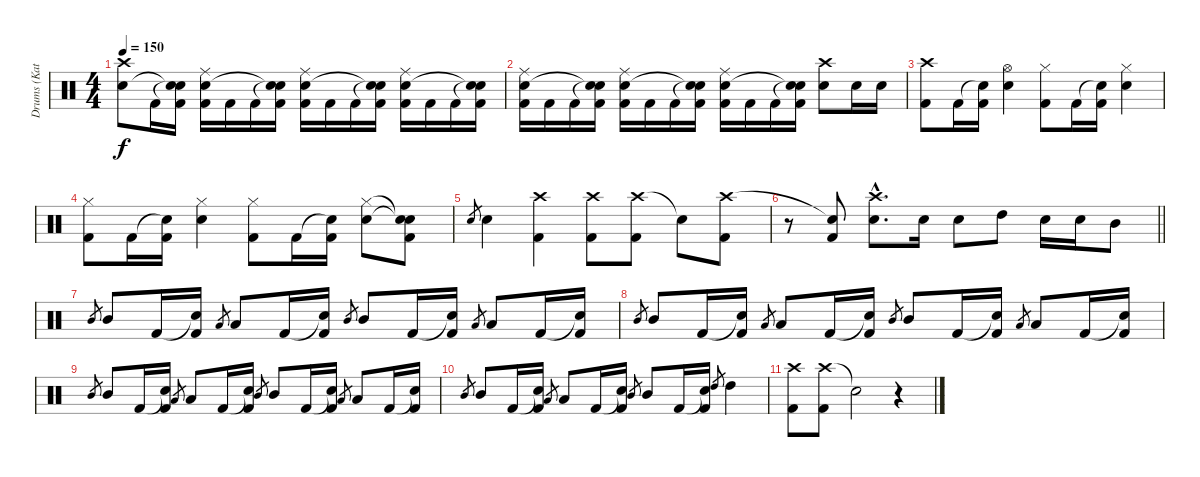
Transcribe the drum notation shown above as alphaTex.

\track ("Drums (Katsuji)" "Drums (Kat") {instrument percussion}
\staff {score}
\articulation defaults
\ts (4 4)
\tempo 150
\clef neutral
\ks c
("Crash high (hit)" "Snare (hit) 2").8{dy f} "Kick (hit) 2".16 ("Snare (hit)"{t} "Snare (hit)"{t} "Kick (hit) 2").16 ("Ride (middle)" "Snare (hit) 2" "Kick (hit) 2").16 "Kick (hit) 2".16 "Kick (hit) 2".16 ("Snare (hit)"{t} "Snare (hit)"{t} "Kick (hit) 2").16 ("Ride (middle)" "Snare (hit) 2" "Kick (hit) 2").16 "Kick (hit) 2".16 "Kick (hit) 2".16 ("Snare (hit)"{t} "Snare (hit)"{t} "Kick (hit) 2").16 ("Ride (middle)" "Snare (hit) 2" "Kick (hit) 2").16 "Kick (hit) 2".16 "Kick (hit) 2".16 ("Snare (hit)"{t} "Snare (hit)"{t} "Kick (hit) 2").16 |
("Ride (middle)" "Snare (hit) 2" "Kick (hit) 2").16 "Kick (hit) 2".16 "Kick (hit) 2".16 ("Snare (hit)"{t} "Snare (hit)"{t} "Kick (hit) 2").16 ("Ride (middle)" "Snare (hit) 2" "Kick (hit) 2").16 "Kick (hit) 2".16 "Kick (hit) 2".16 ("Snare (hit)"{t} "Snare (hit)"{t} "Kick (hit) 2").16 ("Ride (middle)" "Snare (hit) 2" "Kick (hit) 2").16 "Kick (hit) 2".16 "Kick (hit) 2".16 ("Snare (hit)"{t} "Snare (hit)"{t} "Kick (hit) 2").16 ("Crash high (hit)" "Snare (hit) 2").8 "Snare (hit) 2".16 "Snare (hit) 2".16 |
("Crash high (hit)" "Kick (hit) 2").8 "Kick (hit) 2".16 ("Snare (hit)"{t} "Kick (hit) 2").16 ("Hi-Hat (open)" "Snare (hit) 2").4 ("Hi-Hat (closed)" "Kick (hit) 2").8 "Kick (hit) 2".16 ("Snare (hit)"{t} "Kick (hit) 2").16 ("Hi-Hat (closed)" "Snare (hit) 2").4 |
("Hi-Hat (closed)" "Kick (hit) 2").8 "Kick (hit) 2".16 ("Snare (hit)"{t} "Kick (hit) 2").16 ("Hi-Hat (closed)" "Snare (hit) 2").4 ("Hi-Hat (closed)" "Kick (hit) 2").8 "Kick (hit) 2".16 ("Snare (hit)"{t} "Kick (hit) 2").16 ("Hi-Hat (closed)" "Snare (hit) 2").8 ("Snare (hit)"{t} "Snare (hit)"{t} "Kick (hit) 2").8 |
"Snare (hit) 2".8{gr} "Snare (hit) 2".4 ("Crash high (hit)" "Kick (hit) 2").4 ("Crash high (hit)" "Kick (hit) 2").8 ("Crash high (hit)" "Kick (hit) 2").8 "Snare (hit)"{t}.8 ("Crash high (hit)" "Kick (hit) 2").8 |
\barLineRight lightlight
r.8 ("Snare (hit)"{t} "Kick (hit) 2").8 ("Crash high (hit)"{hac} "Snare (hit) 2"{hac}).8{d} "Snare (hit) 2".16 "Snare (hit) 2".8 "High Tom (hit)".8 "Snare (hit) 2".16 "Snare (hit) 2".16 "Mid Tom (hit)".8 |
"Mid Tom (hit)".8{gr} "Mid Tom (hit)".8 "Kick (hit) 2".16 ("Snare (hit)"{t} "Kick (hit) 2").16 "Low Tom (hit)".8{gr} "Low Tom (hit)".8 "Kick (hit) 2".16 ("Snare (hit)"{t} "Kick (hit) 2").16 "Mid Tom (hit)".8{gr} "Mid Tom (hit)".8 "Kick (hit) 2".16 ("Snare (hit)"{t} "Kick (hit) 2").16 "Low Tom (hit)".8{gr} "Low Tom (hit)".8 "Kick (hit) 2".16 ("Snare (hit)"{t} "Kick (hit) 2").16 |
"Mid Tom (hit)".8{gr} "Mid Tom (hit)".8 "Kick (hit) 2".16 ("Snare (hit)"{t} "Kick (hit) 2").16 "Low Tom (hit)".8{gr} "Low Tom (hit)".8 "Kick (hit) 2".16 ("Snare (hit)"{t} "Kick (hit) 2").16 "Mid Tom (hit)".8{gr} "Mid Tom (hit)".8 "Kick (hit) 2".16 ("Snare (hit)"{t} "Kick (hit) 2").16 "Low Tom (hit)".8{gr} "Low Tom (hit)".8 "Kick (hit) 2".16 ("Snare (hit)"{t} "Kick (hit) 2").16 |
"Mid Tom (hit)".8{gr} "Mid Tom (hit)".8 "Kick (hit) 2".16 ("Snare (hit)"{t} "Kick (hit) 2").16 "Low Tom (hit)".8{gr} "Low Tom (hit)".8 "Kick (hit) 2".16 ("Snare (hit)"{t} "Kick (hit) 2").16 "Mid Tom (hit)".8{gr} "Mid Tom (hit)".8 "Kick (hit) 2".16 ("Snare (hit)"{t} "Kick (hit) 2").16 "Low Tom (hit)".8{gr} "Low Tom (hit)".8 "Kick (hit) 2".16 ("Snare (hit)"{t} "Kick (hit) 2").16 |
"Mid Tom (hit)".8{gr} "Mid Tom (hit)".8 "Kick (hit) 2".16 ("Snare (hit)"{t} "Kick (hit) 2").16 "Low Tom (hit)".8{gr} "Low Tom (hit)".8 "Kick (hit) 2".16 ("Snare (hit)"{t} "Kick (hit) 2").16 "Mid Tom (hit)".8{gr} "Mid Tom (hit)".8 "Kick (hit) 2".16 ("Snare (hit)"{t} "Kick (hit) 2").16 "High Tom (hit)".8{gr} "High Tom (hit)".4 |
("Crash high (hit)" "Kick (hit) 2").8 ("Crash high (hit)" "Kick (hit) 2").8 "Snare (hit)"{t}.2 r.4
